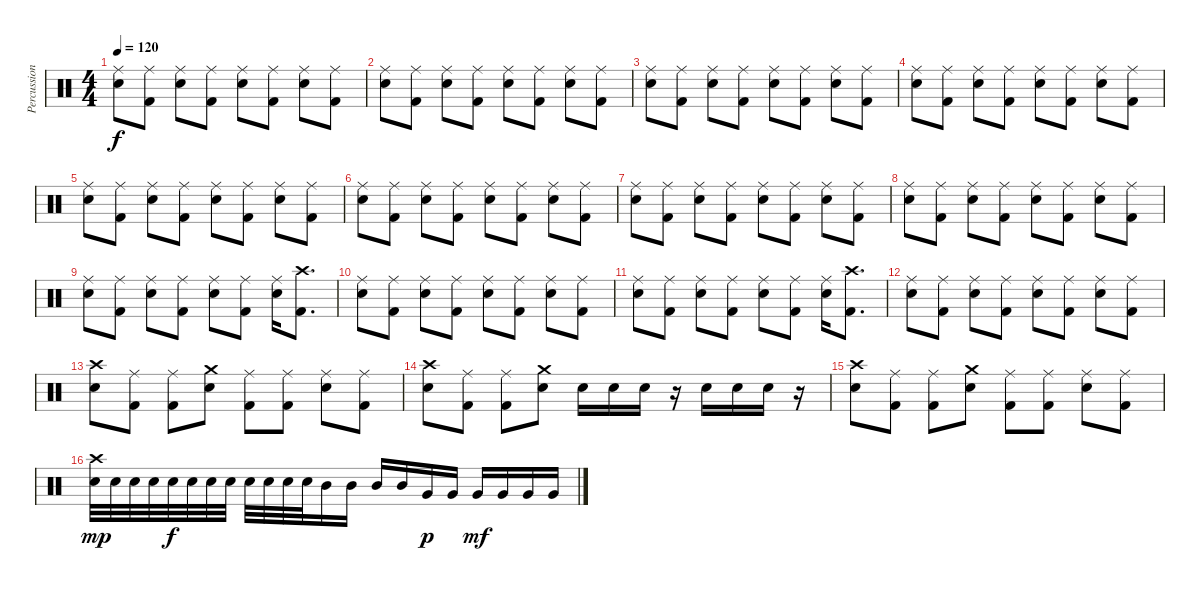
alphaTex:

\track ("Percussions" "Percussion") {instrument percussion}
\staff {score}
\articulation defaults
\ts (4 4)
\tempo 120
\clef neutral
\ks c
("Ride (middle)" "Snare (hit) 2").8{dy f} ("Ride (middle)" "Kick (hit) 2").8 ("Ride (middle)" "Snare (hit) 2").8 ("Ride (middle)" "Kick (hit) 2").8 ("Ride (middle)" "Snare (hit) 2").8 ("Ride (middle)" "Kick (hit) 2").8 ("Ride (middle)" "Snare (hit) 2").8 ("Ride (middle)" "Kick (hit) 2").8 |
("Ride (middle)" "Snare (hit) 2").8 ("Ride (middle)" "Kick (hit) 2").8 ("Ride (middle)" "Snare (hit) 2").8 ("Ride (middle)" "Kick (hit) 2").8 ("Ride (middle)" "Snare (hit) 2").8 ("Ride (middle)" "Kick (hit) 2").8 ("Ride (middle)" "Snare (hit) 2").8 ("Ride (middle)" "Kick (hit) 2").8 |
("Ride (middle)" "Snare (hit) 2").8 ("Ride (middle)" "Kick (hit) 2").8 ("Ride (middle)" "Snare (hit) 2").8 ("Ride (middle)" "Kick (hit) 2").8 ("Ride (middle)" "Snare (hit) 2").8 ("Ride (middle)" "Kick (hit) 2").8 ("Ride (middle)" "Snare (hit) 2").8 ("Ride (middle)" "Kick (hit) 2").8 |
("Ride (middle)" "Snare (hit) 2").8 ("Ride (middle)" "Kick (hit) 2").8 ("Ride (middle)" "Snare (hit) 2").8 ("Ride (middle)" "Kick (hit) 2").8 ("Ride (middle)" "Snare (hit) 2").8 ("Ride (middle)" "Kick (hit) 2").8 ("Ride (middle)" "Snare (hit) 2").8 ("Ride (middle)" "Kick (hit) 2").8 |
("Ride (middle)" "Snare (hit) 2").8 ("Ride (middle)" "Kick (hit) 2").8 ("Ride (middle)" "Snare (hit) 2").8 ("Ride (middle)" "Kick (hit) 2").8 ("Ride (middle)" "Snare (hit) 2").8 ("Ride (middle)" "Kick (hit) 2").8 ("Ride (middle)" "Snare (hit) 2").8 ("Ride (middle)" "Kick (hit) 2").8 |
("Ride (middle)" "Snare (hit) 2").8 ("Ride (middle)" "Kick (hit) 2").8 ("Ride (middle)" "Snare (hit) 2").8 ("Ride (middle)" "Kick (hit) 2").8 ("Ride (middle)" "Snare (hit) 2").8 ("Ride (middle)" "Kick (hit) 2").8 ("Ride (middle)" "Snare (hit) 2").8 ("Ride (middle)" "Kick (hit) 2").8 |
("Ride (middle)" "Snare (hit) 2").8 ("Ride (middle)" "Kick (hit) 2").8 ("Ride (middle)" "Snare (hit) 2").8 ("Ride (middle)" "Kick (hit) 2").8 ("Ride (middle)" "Snare (hit) 2").8 ("Ride (middle)" "Kick (hit) 2").8 ("Ride (middle)" "Snare (hit) 2").8 ("Ride (middle)" "Kick (hit) 2").8 |
("Ride (middle)" "Snare (hit) 2").8 ("Ride (middle)" "Kick (hit) 2").8 ("Ride (middle)" "Snare (hit) 2").8 ("Ride (middle)" "Kick (hit) 2").8 ("Ride (middle)" "Snare (hit) 2").8 ("Ride (middle)" "Kick (hit) 2").8 ("Ride (middle)" "Snare (hit) 2").8 ("Ride (middle)" "Kick (hit) 2").8 |
("Ride (middle)" "Snare (hit) 2").8 ("Ride (middle)" "Kick (hit) 2").8 ("Ride (middle)" "Snare (hit) 2").8 ("Ride (middle)" "Kick (hit) 2").8 ("Ride (middle)" "Snare (hit) 2").8 ("Ride (middle)" "Kick (hit) 2").8 ("Ride (middle)" "Snare (hit) 2").16 ("Crash high (hit)" "Kick (hit) 2").8{d} |
("Ride (middle)" "Snare (hit) 2").8 ("Ride (middle)" "Kick (hit) 2").8 ("Ride (middle)" "Snare (hit) 2").8 ("Ride (middle)" "Kick (hit) 2").8 ("Ride (middle)" "Snare (hit) 2").8 ("Ride (middle)" "Kick (hit) 2").8 ("Ride (middle)" "Snare (hit) 2").8 ("Ride (middle)" "Kick (hit) 2").8 |
("Ride (middle)" "Snare (hit) 2").8 ("Ride (middle)" "Kick (hit) 2").8 ("Ride (middle)" "Snare (hit) 2").8 ("Ride (middle)" "Kick (hit) 2").8 ("Ride (middle)" "Snare (hit) 2").8 ("Ride (middle)" "Kick (hit) 2").8 ("Ride (middle)" "Snare (hit) 2").16 ("Crash high (hit)" "Kick (hit) 2").8{d} |
("Ride (middle)" "Snare (hit) 2").8 ("Ride (middle)" "Kick (hit) 2").8 ("Ride (middle)" "Snare (hit) 2").8 ("Ride (middle)" "Kick (hit) 2").8 ("Ride (middle)" "Snare (hit) 2").8 ("Ride (middle)" "Kick (hit) 2").8 ("Ride (middle)" "Snare (hit) 2").8 ("Ride (middle)" "Kick (hit) 2").8 |
("Crash high (hit)" "Snare (hit) 2").8 ("Ride (middle)" "Kick (hit) 2").8 ("Ride (middle)" "Kick (hit) 2").8 ("Crash medium (hit)" "Snare (hit) 2").8 ("Ride (middle)" "Kick (hit) 2").8 ("Ride (middle)" "Kick (hit) 2").8 ("Ride (middle)" "Snare (hit) 2").8 ("Ride (middle)" "Kick (hit) 2").8 |
("Crash high (hit)" "Snare (hit) 2").8 ("Ride (middle)" "Kick (hit) 2").8 ("Ride (middle)" "Kick (hit) 2").8 ("Crash medium (hit)" "Snare (hit) 2").8 "Electric Snare (hit)".16 "Electric Snare (hit)".16 "Electric Snare (hit)".16 r.16 "Snare (hit) 2".16 "Snare (hit) 2".16 "Snare (hit) 2".16 r.16 |
("Crash high (hit)" "Snare (hit) 2").8 ("Ride (middle)" "Kick (hit) 2").8 ("Ride (middle)" "Kick (hit) 2").8 ("Crash medium (hit)" "Snare (hit) 2").8 ("Ride (middle)" "Kick (hit) 2").8 ("Ride (middle)" "Kick (hit) 2").8 ("Ride (middle)" "Snare (hit) 2").8 ("Ride (middle)" "Kick (hit) 2").8 |
("Crash high (hit)" "Snare (hit) 2").32{dy mp} "Snare (hit) 2".32 "Snare (hit) 2".32 "Snare (hit) 2".32 "Snare (hit) 2".32{dy f} "Snare (hit) 2".32 "Snare (hit) 2".32 "Snare (hit) 2".32 "Snare (hit) 2".32 "Snare (hit) 2".32 "Snare (hit) 2".32 "Snare (hit) 2".32 "Mid Tom (hit)".16 "Mid Tom (hit)".16 "Mid Tom (hit)".16 "Mid Tom (hit)".16 "Very Low Tom (hit)".16{dy p} "Very Low Tom (hit)".16 "Very Low Tom (hit)".16{dy mf} "Very Low Tom (hit)".16 "Very Low Tom (hit)".16 "Very Low Tom (hit)".16
